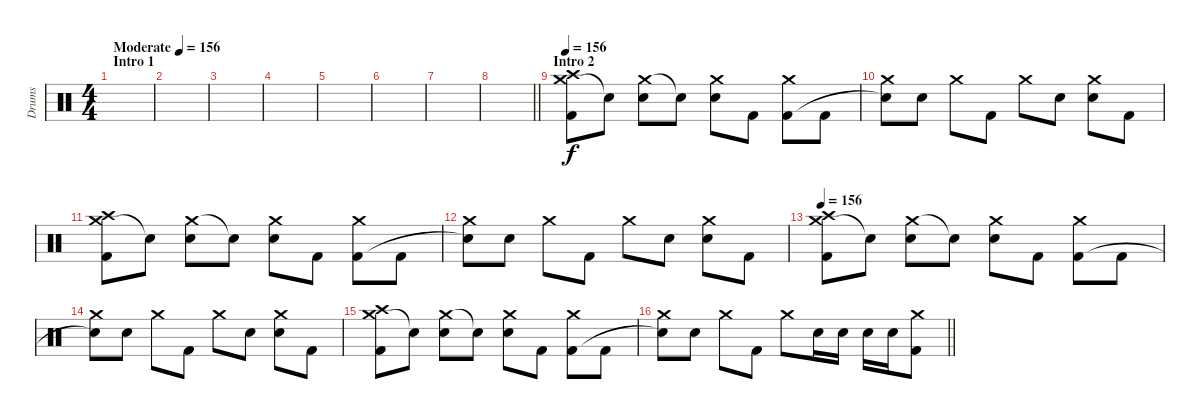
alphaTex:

\track ("Drums" "Drums") {instrument percussion}
\staff {score}
\articulation defaults
\ts (4 4)
\section ("" "Intro 1")
\tempo (156 "Moderate")
\tempo 60
\tempo (156 "Moderate")
\clef neutral
\ks c
|
|
|
|
|
|
|
\barLineRight lightlight
|
\section ("" "Intro 2")
\tempo 156
("Crash medium (hit)" "Crash high (hit)" "Kick (hit) 2").8 "Snare (hit)"{t}.8 ("Crash medium (hit)" "Electric Snare (hit)").8 "Snare (hit)"{t}.8 ("Crash medium (hit)" "Electric Snare (hit)").8 "Kick (hit) 2".8 ("Crash medium (hit)" "Kick (hit) 2").8 "Kick (hit) 2".8 |
("Crash medium (hit)" "Snare (hit)"{t}).8 "Electric Snare (hit)".8 "Crash medium (hit)".8 "Kick (hit) 2".8 "Crash medium (hit)".8 "Electric Snare (hit)".8 ("Crash medium (hit)" "Electric Snare (hit)").8 "Kick (hit) 2".8 |
("Crash medium (hit)" "Crash high (hit)" "Kick (hit) 2").8 "Snare (hit)"{t}.8 ("Crash medium (hit)" "Electric Snare (hit)").8 "Snare (hit)"{t}.8 ("Crash medium (hit)" "Electric Snare (hit)").8 "Kick (hit) 2".8 ("Crash medium (hit)" "Kick (hit) 2").8 "Kick (hit) 2".8 |
("Crash medium (hit)" "Snare (hit)"{t}).8 "Electric Snare (hit)".8 "Crash medium (hit)".8 "Kick (hit) 2".8 "Crash medium (hit)".8 "Electric Snare (hit)".8 ("Crash medium (hit)" "Electric Snare (hit)").8 "Kick (hit) 2".8 |
\tempo 156
("Crash medium (hit)" "Crash high (hit)" "Kick (hit) 2").8 "Snare (hit)"{t}.8 ("Crash medium (hit)" "Electric Snare (hit)").8 "Snare (hit)"{t}.8 ("Crash medium (hit)" "Electric Snare (hit)").8 "Kick (hit) 2".8 ("Crash medium (hit)" "Kick (hit) 2").8 "Kick (hit) 2".8 |
("Crash medium (hit)" "Snare (hit)"{t}).8 "Electric Snare (hit)".8 "Crash medium (hit)".8 "Kick (hit) 2".8 "Crash medium (hit)".8 "Electric Snare (hit)".8 ("Crash medium (hit)" "Electric Snare (hit)").8 "Kick (hit) 2".8 |
("Crash medium (hit)" "Crash high (hit)" "Kick (hit) 2").8 "Snare (hit)"{t}.8 ("Crash medium (hit)" "Electric Snare (hit)").8 "Snare (hit)"{t}.8 ("Crash medium (hit)" "Electric Snare (hit)").8 "Kick (hit) 2".8 ("Crash medium (hit)" "Kick (hit) 2").8 "Kick (hit) 2".8 |
\barLineRight lightlight
("Crash medium (hit)" "Snare (hit)"{t}).8 "Electric Snare (hit)".8 "Crash medium (hit)".8 "Kick (hit) 2".8 "Crash medium (hit)".8 "Electric Snare (hit)".16 "Electric Snare (hit)".16 "Electric Snare (hit)".16 "Electric Snare (hit)".16 ("Crash medium (hit)" "Kick (hit) 2").8
